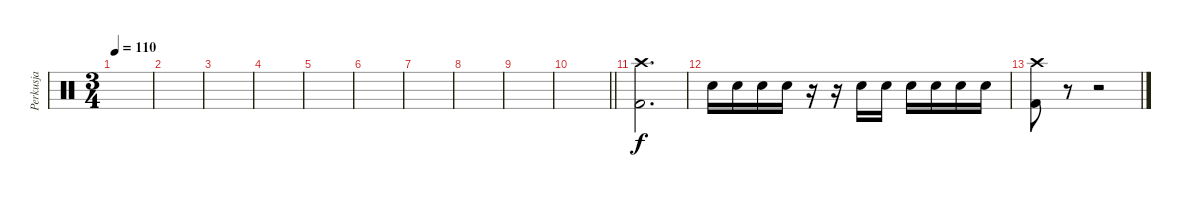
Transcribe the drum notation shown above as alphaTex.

\track ("Perkusja" "Perkusja") {instrument percussion}
\staff {score}
\articulation defaults
\ts (3 4)
\tempo 110
\clef neutral
\ks c
|
|
|
|
|
|
|
|
|
\barLineRight lightlight
|
("Kick (hit) 2" "Crash high (hit)").2{d} |
"Snare (hit) 2".16 "Snare (hit) 2".16 "Snare (hit) 2".16 "Snare (hit) 2".16 r.16 r.16 "Snare (hit) 2".16 "Snare (hit) 2".16 "Snare (hit) 2".16 "Snare (hit) 2".16 "Snare (hit) 2".16 "Snare (hit) 2".16 |
("Kick (hit) 2" "Crash high (hit)").8 r.8 r.2
